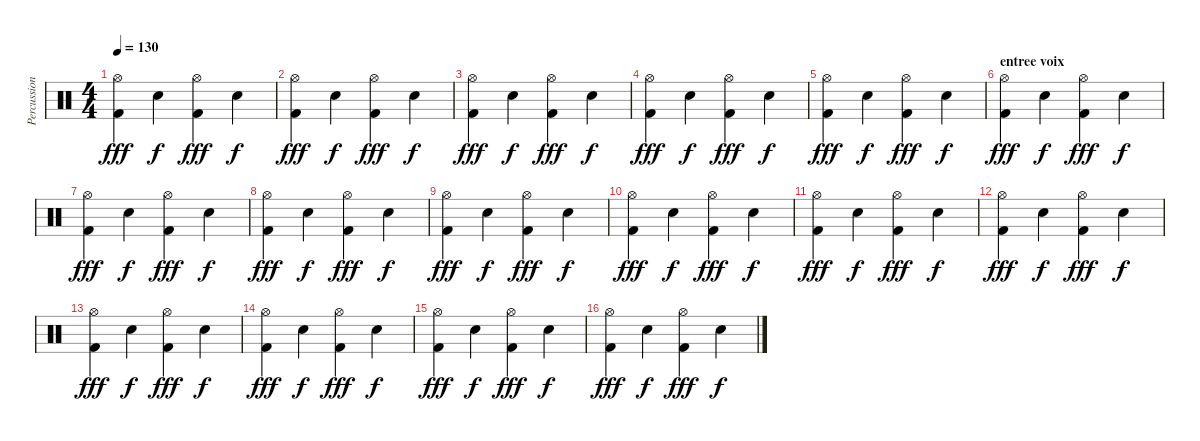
\track ("Percussions" "Percussion") {instrument percussion}
\staff {score}
\articulation defaults
\ts (4 4)
\tempo 130
\clef neutral
\ks c
("Hi-Hat (open)" "Kick (hit) 2").4{dy fff} "Electric Snare (hit)".4{dy f} ("Hi-Hat (open)" "Kick (hit) 2").4{dy fff} "Electric Snare (hit)".4{dy f} |
("Hi-Hat (open)" "Kick (hit) 2").4{dy fff} "Electric Snare (hit)".4{dy f} ("Hi-Hat (open)" "Kick (hit) 2").4{dy fff} "Electric Snare (hit)".4{dy f} |
("Hi-Hat (open)" "Kick (hit) 2").4{dy fff} "Electric Snare (hit)".4{dy f} ("Hi-Hat (open)" "Kick (hit) 2").4{dy fff} "Electric Snare (hit)".4{dy f} |
("Hi-Hat (open)" "Kick (hit) 2").4{dy fff} "Electric Snare (hit)".4{dy f} ("Hi-Hat (open)" "Kick (hit) 2").4{dy fff} "Electric Snare (hit)".4{dy f} |
("Hi-Hat (open)" "Kick (hit) 2").4{dy fff} "Electric Snare (hit)".4{dy f} ("Hi-Hat (open)" "Kick (hit) 2").4{dy fff} "Electric Snare (hit)".4{dy f} |
\section ("" "entree voix")
("Hi-Hat (open)" "Kick (hit) 2").4{dy fff} "Electric Snare (hit)".4{dy f} ("Hi-Hat (open)" "Kick (hit) 2").4{dy fff} "Electric Snare (hit)".4{dy f} |
("Hi-Hat (open)" "Kick (hit) 2").4{dy fff} "Electric Snare (hit)".4{dy f} ("Hi-Hat (open)" "Kick (hit) 2").4{dy fff} "Electric Snare (hit)".4{dy f} |
("Hi-Hat (open)" "Kick (hit) 2").4{dy fff} "Electric Snare (hit)".4{dy f} ("Hi-Hat (open)" "Kick (hit) 2").4{dy fff} "Electric Snare (hit)".4{dy f} |
("Hi-Hat (open)" "Kick (hit) 2").4{dy fff} "Electric Snare (hit)".4{dy f} ("Hi-Hat (open)" "Kick (hit) 2").4{dy fff} "Electric Snare (hit)".4{dy f} |
("Hi-Hat (open)" "Kick (hit) 2").4{dy fff} "Electric Snare (hit)".4{dy f} ("Hi-Hat (open)" "Kick (hit) 2").4{dy fff} "Electric Snare (hit)".4{dy f} |
("Hi-Hat (open)" "Kick (hit) 2").4{dy fff} "Electric Snare (hit)".4{dy f} ("Hi-Hat (open)" "Kick (hit) 2").4{dy fff} "Electric Snare (hit)".4{dy f} |
("Hi-Hat (open)" "Kick (hit) 2").4{dy fff} "Electric Snare (hit)".4{dy f} ("Hi-Hat (open)" "Kick (hit) 2").4{dy fff} "Electric Snare (hit)".4{dy f} |
("Hi-Hat (open)" "Kick (hit) 2").4{dy fff} "Electric Snare (hit)".4{dy f} ("Hi-Hat (open)" "Kick (hit) 2").4{dy fff} "Electric Snare (hit)".4{dy f} |
("Hi-Hat (open)" "Kick (hit) 2").4{dy fff} "Electric Snare (hit)".4{dy f} ("Hi-Hat (open)" "Kick (hit) 2").4{dy fff} "Electric Snare (hit)".4{dy f} |
("Hi-Hat (open)" "Kick (hit) 2").4{dy fff} "Electric Snare (hit)".4{dy f} ("Hi-Hat (open)" "Kick (hit) 2").4{dy fff} "Electric Snare (hit)".4{dy f} |
("Hi-Hat (open)" "Kick (hit) 2").4{dy fff} "Electric Snare (hit)".4{dy f} ("Hi-Hat (open)" "Kick (hit) 2").4{dy fff} "Electric Snare (hit)".4{dy f}
